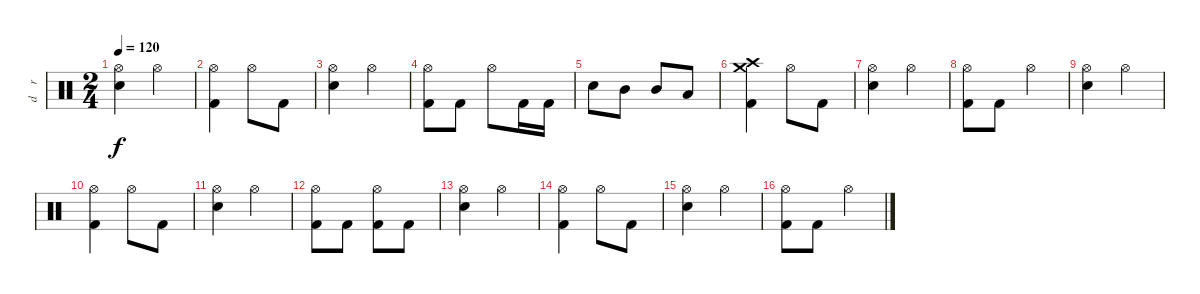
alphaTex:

\track ("d    r     u    m    s" "d    r    ") {instrument percussion}
\staff {score}
\articulation defaults
\ts (2 4)
\tempo 120
\clef neutral
\ks c
("Hi-Hat (open)" "Snare (hit) 2").4{dy f} "Hi-Hat (open)".4 |
("Hi-Hat (open)" "Kick (hit) 2").4 "Hi-Hat (open)".8 "Kick (hit) 2".8 |
("Hi-Hat (open)" "Snare (hit) 2").4 "Hi-Hat (open)".4 |
("Hi-Hat (open)" "Kick (hit) 2").8 "Kick (hit) 2".8 "Hi-Hat (open)".8 "Kick (hit) 2".16 "Kick (hit) 2".16 |
"Snare (hit) 2".8 "Mid Tom (hit)".8 "Mid Tom (hit)".8 "Low Tom (hit)".8 |
("Crash high (hit)" "Crash medium (hit)" "Kick (hit) 2").4 "Hi-Hat (open)".8 "Kick (hit) 2".8 |
("Hi-Hat (open)" "Snare (hit) 2").4 "Hi-Hat (open)".4 |
("Hi-Hat (open)" "Kick (hit) 2").8 "Kick (hit) 2".8 "Hi-Hat (open)".4 |
("Hi-Hat (open)" "Snare (hit) 2").4 "Hi-Hat (open)".4 |
("Hi-Hat (open)" "Kick (hit) 2").4 "Hi-Hat (open)".8 "Kick (hit) 2".8 |
("Hi-Hat (open)" "Snare (hit) 2").4 "Hi-Hat (open)".4 |
("Hi-Hat (open)" "Kick (hit) 2").8 "Kick (hit) 2".8 ("Hi-Hat (open)" "Kick (hit) 2").8 "Kick (hit) 2".8 |
("Hi-Hat (open)" "Snare (hit) 2").4 "Hi-Hat (open)".4 |
("Hi-Hat (open)" "Kick (hit) 2").4 "Hi-Hat (open)".8 "Kick (hit) 2".8 |
("Hi-Hat (open)" "Snare (hit) 2").4 "Hi-Hat (open)".4 |
("Hi-Hat (open)" "Kick (hit) 2").8 "Kick (hit) 2".8 "Hi-Hat (open)".4
